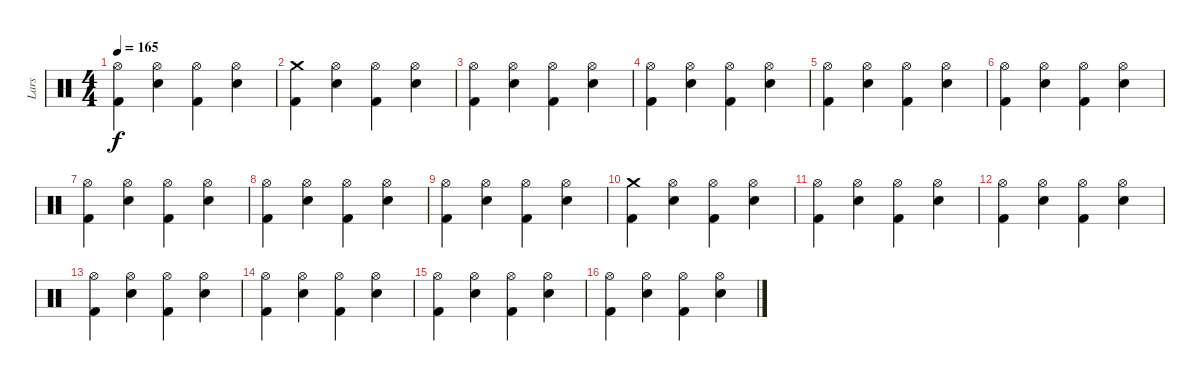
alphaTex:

\track ("Lars" "Lars") {instrument percussion}
\staff {score}
\articulation defaults
\ts (4 4)
\tempo 165
\clef neutral
\ks c
("Hi-Hat (open)" "Kick (hit) 2").4{dy f} ("Hi-Hat (open)" "Snare (hit) 2").4 ("Hi-Hat (open)" "Kick (hit) 2").4 ("Hi-Hat (open)" "Snare (hit) 2").4 |
("Crash medium (hit)" "Kick (hit) 2").4 ("Hi-Hat (open)" "Snare (hit) 2").4 ("Hi-Hat (open)" "Kick (hit) 2").4 ("Hi-Hat (open)" "Snare (hit) 2").4 |
("Hi-Hat (open)" "Kick (hit) 2").4 ("Hi-Hat (open)" "Snare (hit) 2").4 ("Hi-Hat (open)" "Kick (hit) 2").4 ("Hi-Hat (open)" "Snare (hit) 2").4 |
("Hi-Hat (open)" "Kick (hit) 2").4 ("Hi-Hat (open)" "Snare (hit) 2").4 ("Hi-Hat (open)" "Kick (hit) 2").4 ("Hi-Hat (open)" "Snare (hit) 2").4 |
("Hi-Hat (open)" "Kick (hit) 2").4 ("Hi-Hat (open)" "Snare (hit) 2").4 ("Hi-Hat (open)" "Kick (hit) 2").4 ("Hi-Hat (open)" "Snare (hit) 2").4 |
("Hi-Hat (open)" "Kick (hit) 2").4 ("Hi-Hat (open)" "Snare (hit) 2").4 ("Hi-Hat (open)" "Kick (hit) 2").4 ("Hi-Hat (open)" "Snare (hit) 2").4 |
("Hi-Hat (open)" "Kick (hit) 2").4 ("Hi-Hat (open)" "Snare (hit) 2").4 ("Hi-Hat (open)" "Kick (hit) 2").4 ("Hi-Hat (open)" "Snare (hit) 2").4 |
("Hi-Hat (open)" "Kick (hit) 2").4 ("Hi-Hat (open)" "Snare (hit) 2").4 ("Hi-Hat (open)" "Kick (hit) 2").4 ("Hi-Hat (open)" "Snare (hit) 2").4 |
("Hi-Hat (open)" "Kick (hit) 2").4 ("Hi-Hat (open)" "Snare (hit) 2").4 ("Hi-Hat (open)" "Kick (hit) 2").4 ("Hi-Hat (open)" "Snare (hit) 2").4 |
("Crash medium (hit)" "Kick (hit) 2").4 ("Hi-Hat (open)" "Snare (hit) 2").4 ("Hi-Hat (open)" "Kick (hit) 2").4 ("Hi-Hat (open)" "Snare (hit) 2").4 |
("Hi-Hat (open)" "Kick (hit) 2").4 ("Hi-Hat (open)" "Snare (hit) 2").4 ("Hi-Hat (open)" "Kick (hit) 2").4 ("Hi-Hat (open)" "Snare (hit) 2").4 |
("Hi-Hat (open)" "Kick (hit) 2").4 ("Hi-Hat (open)" "Snare (hit) 2").4 ("Hi-Hat (open)" "Kick (hit) 2").4 ("Hi-Hat (open)" "Snare (hit) 2").4 |
("Hi-Hat (open)" "Kick (hit) 2").4 ("Hi-Hat (open)" "Snare (hit) 2").4 ("Hi-Hat (open)" "Kick (hit) 2").4 ("Hi-Hat (open)" "Snare (hit) 2").4 |
("Hi-Hat (open)" "Kick (hit) 2").4 ("Hi-Hat (open)" "Snare (hit) 2").4 ("Hi-Hat (open)" "Kick (hit) 2").4 ("Hi-Hat (open)" "Snare (hit) 2").4 |
("Hi-Hat (open)" "Kick (hit) 2").4 ("Hi-Hat (open)" "Snare (hit) 2").4 ("Hi-Hat (open)" "Kick (hit) 2").4 ("Hi-Hat (open)" "Snare (hit) 2").4 |
("Hi-Hat (open)" "Kick (hit) 2").4 ("Hi-Hat (open)" "Snare (hit) 2").4 ("Hi-Hat (open)" "Kick (hit) 2").4 ("Hi-Hat (open)" "Snare (hit) 2").4
